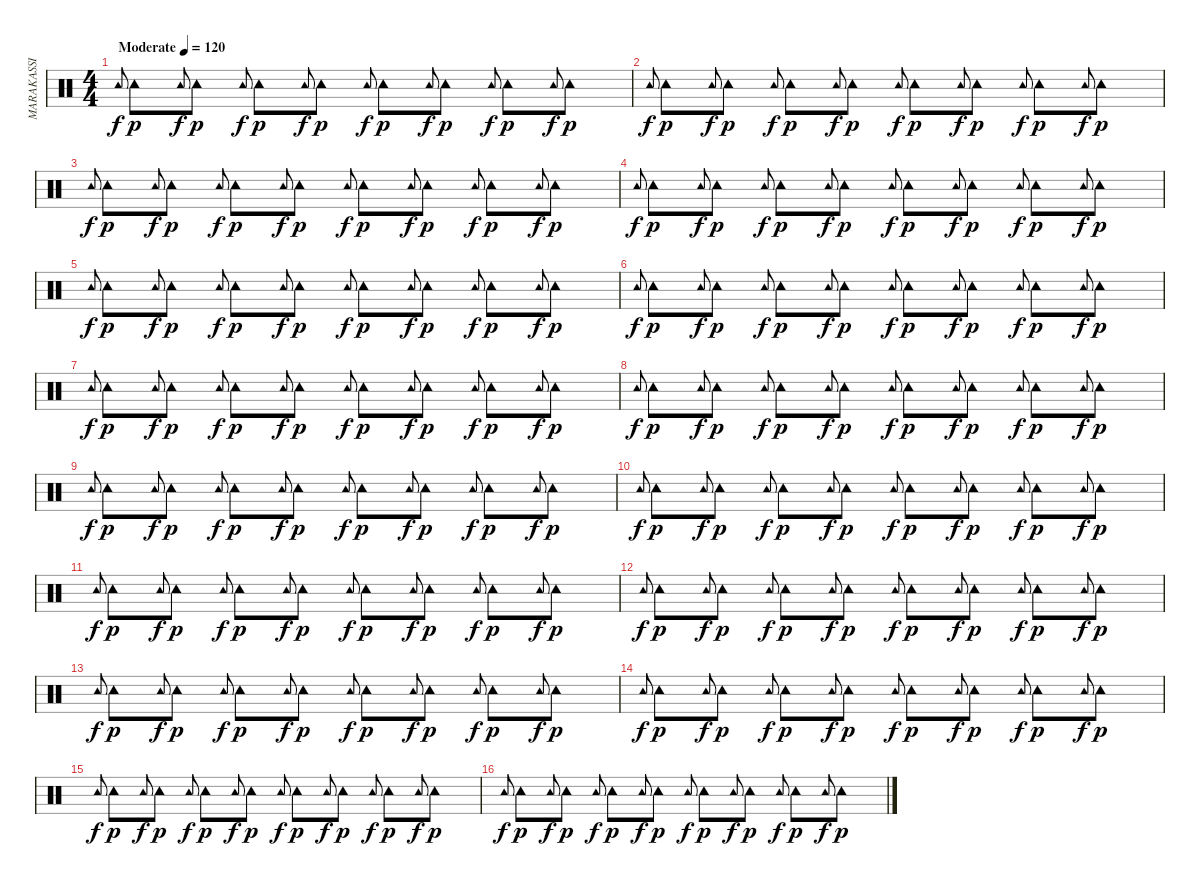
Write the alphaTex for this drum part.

\track ("MARAKASSI" "MARAKASSI") {instrument percussion}
\staff {score}
\articulation defaults
\ts (4 4)
\tempo (120 "Moderate")
\clef neutral
\ks c "Tambourine (hit)".8{gr onbeat dy f} "Tambourine (hit)".8{dy p} "Tambourine (hit)".8{gr onbeat dy f} "Tambourine (hit)".8{dy p} "Tambourine (hit)".8{gr onbeat dy f} "Tambourine (hit)".8{dy p} "Tambourine (hit)".8{gr onbeat dy f} "Tambourine (hit)".8{dy p} "Tambourine (hit)".8{gr onbeat dy f} "Tambourine (hit)".8{dy p} "Tambourine (hit)".8{gr onbeat dy f} "Tambourine (hit)".8{dy p} "Tambourine (hit)".8{gr onbeat dy f} "Tambourine (hit)".8{dy p} "Tambourine (hit)".8{gr onbeat dy f} "Tambourine (hit)".8{dy p}
|
"Tambourine (hit)".8{gr onbeat dy f} "Tambourine (hit)".8{dy p} "Tambourine (hit)".8{gr onbeat dy f} "Tambourine (hit)".8{dy p} "Tambourine (hit)".8{gr onbeat dy f} "Tambourine (hit)".8{dy p} "Tambourine (hit)".8{gr onbeat dy f} "Tambourine (hit)".8{dy p} "Tambourine (hit)".8{gr onbeat dy f} "Tambourine (hit)".8{dy p} "Tambourine (hit)".8{gr onbeat dy f} "Tambourine (hit)".8{dy p} "Tambourine (hit)".8{gr onbeat dy f} "Tambourine (hit)".8{dy p} "Tambourine (hit)".8{gr onbeat dy f} "Tambourine (hit)".8{dy p} |
"Tambourine (hit)".8{gr onbeat dy f} "Tambourine (hit)".8{dy p} "Tambourine (hit)".8{gr onbeat dy f} "Tambourine (hit)".8{dy p} "Tambourine (hit)".8{gr onbeat dy f} "Tambourine (hit)".8{dy p} "Tambourine (hit)".8{gr onbeat dy f} "Tambourine (hit)".8{dy p} "Tambourine (hit)".8{gr onbeat dy f} "Tambourine (hit)".8{dy p} "Tambourine (hit)".8{gr onbeat dy f} "Tambourine (hit)".8{dy p} "Tambourine (hit)".8{gr onbeat dy f} "Tambourine (hit)".8{dy p} "Tambourine (hit)".8{gr onbeat dy f} "Tambourine (hit)".8{dy p} |
"Tambourine (hit)".8{gr onbeat dy f} "Tambourine (hit)".8{dy p} "Tambourine (hit)".8{gr onbeat dy f} "Tambourine (hit)".8{dy p} "Tambourine (hit)".8{gr onbeat dy f} "Tambourine (hit)".8{dy p} "Tambourine (hit)".8{gr onbeat dy f} "Tambourine (hit)".8{dy p} "Tambourine (hit)".8{gr onbeat dy f} "Tambourine (hit)".8{dy p} "Tambourine (hit)".8{gr onbeat dy f} "Tambourine (hit)".8{dy p} "Tambourine (hit)".8{gr onbeat dy f} "Tambourine (hit)".8{dy p} "Tambourine (hit)".8{gr onbeat dy f} "Tambourine (hit)".8{dy p} |
"Tambourine (hit)".8{gr onbeat dy f} "Tambourine (hit)".8{dy p} "Tambourine (hit)".8{gr onbeat dy f} "Tambourine (hit)".8{dy p} "Tambourine (hit)".8{gr onbeat dy f} "Tambourine (hit)".8{dy p} "Tambourine (hit)".8{gr onbeat dy f} "Tambourine (hit)".8{dy p} "Tambourine (hit)".8{gr onbeat dy f} "Tambourine (hit)".8{dy p} "Tambourine (hit)".8{gr onbeat dy f} "Tambourine (hit)".8{dy p} "Tambourine (hit)".8{gr onbeat dy f} "Tambourine (hit)".8{dy p} "Tambourine (hit)".8{gr onbeat dy f} "Tambourine (hit)".8{dy p} |
"Tambourine (hit)".8{gr onbeat dy f} "Tambourine (hit)".8{dy p} "Tambourine (hit)".8{gr onbeat dy f} "Tambourine (hit)".8{dy p} "Tambourine (hit)".8{gr onbeat dy f} "Tambourine (hit)".8{dy p} "Tambourine (hit)".8{gr onbeat dy f} "Tambourine (hit)".8{dy p} "Tambourine (hit)".8{gr onbeat dy f} "Tambourine (hit)".8{dy p} "Tambourine (hit)".8{gr onbeat dy f} "Tambourine (hit)".8{dy p} "Tambourine (hit)".8{gr onbeat dy f} "Tambourine (hit)".8{dy p} "Tambourine (hit)".8{gr onbeat dy f} "Tambourine (hit)".8{dy p} |
"Tambourine (hit)".8{gr onbeat dy f} "Tambourine (hit)".8{dy p} "Tambourine (hit)".8{gr onbeat dy f} "Tambourine (hit)".8{dy p} "Tambourine (hit)".8{gr onbeat dy f} "Tambourine (hit)".8{dy p} "Tambourine (hit)".8{gr onbeat dy f} "Tambourine (hit)".8{dy p} "Tambourine (hit)".8{gr onbeat dy f} "Tambourine (hit)".8{dy p} "Tambourine (hit)".8{gr onbeat dy f} "Tambourine (hit)".8{dy p} "Tambourine (hit)".8{gr onbeat dy f} "Tambourine (hit)".8{dy p} "Tambourine (hit)".8{gr onbeat dy f} "Tambourine (hit)".8{dy p} |
"Tambourine (hit)".8{gr onbeat dy f} "Tambourine (hit)".8{dy p} "Tambourine (hit)".8{gr onbeat dy f} "Tambourine (hit)".8{dy p} "Tambourine (hit)".8{gr onbeat dy f} "Tambourine (hit)".8{dy p} "Tambourine (hit)".8{gr onbeat dy f} "Tambourine (hit)".8{dy p} "Tambourine (hit)".8{gr onbeat dy f} "Tambourine (hit)".8{dy p} "Tambourine (hit)".8{gr onbeat dy f} "Tambourine (hit)".8{dy p} "Tambourine (hit)".8{gr onbeat dy f} "Tambourine (hit)".8{dy p} "Tambourine (hit)".8{gr onbeat dy f} "Tambourine (hit)".8{dy p} |
"Tambourine (hit)".8{gr onbeat dy f} "Tambourine (hit)".8{dy p} "Tambourine (hit)".8{gr onbeat dy f} "Tambourine (hit)".8{dy p} "Tambourine (hit)".8{gr onbeat dy f} "Tambourine (hit)".8{dy p} "Tambourine (hit)".8{gr onbeat dy f} "Tambourine (hit)".8{dy p} "Tambourine (hit)".8{gr onbeat dy f} "Tambourine (hit)".8{dy p} "Tambourine (hit)".8{gr onbeat dy f} "Tambourine (hit)".8{dy p} "Tambourine (hit)".8{gr onbeat dy f} "Tambourine (hit)".8{dy p} "Tambourine (hit)".8{gr onbeat dy f} "Tambourine (hit)".8{dy p} |
"Tambourine (hit)".8{gr onbeat dy f} "Tambourine (hit)".8{dy p} "Tambourine (hit)".8{gr onbeat dy f} "Tambourine (hit)".8{dy p} "Tambourine (hit)".8{gr onbeat dy f} "Tambourine (hit)".8{dy p} "Tambourine (hit)".8{gr onbeat dy f} "Tambourine (hit)".8{dy p} "Tambourine (hit)".8{gr onbeat dy f} "Tambourine (hit)".8{dy p} "Tambourine (hit)".8{gr onbeat dy f} "Tambourine (hit)".8{dy p} "Tambourine (hit)".8{gr onbeat dy f} "Tambourine (hit)".8{dy p} "Tambourine (hit)".8{gr onbeat dy f} "Tambourine (hit)".8{dy p} |
"Tambourine (hit)".8{gr onbeat dy f} "Tambourine (hit)".8{dy p} "Tambourine (hit)".8{gr onbeat dy f} "Tambourine (hit)".8{dy p} "Tambourine (hit)".8{gr onbeat dy f} "Tambourine (hit)".8{dy p} "Tambourine (hit)".8{gr onbeat dy f} "Tambourine (hit)".8{dy p} "Tambourine (hit)".8{gr onbeat dy f} "Tambourine (hit)".8{dy p} "Tambourine (hit)".8{gr onbeat dy f} "Tambourine (hit)".8{dy p} "Tambourine (hit)".8{gr onbeat dy f} "Tambourine (hit)".8{dy p} "Tambourine (hit)".8{gr onbeat dy f} "Tambourine (hit)".8{dy p} |
"Tambourine (hit)".8{gr onbeat dy f} "Tambourine (hit)".8{dy p} "Tambourine (hit)".8{gr onbeat dy f} "Tambourine (hit)".8{dy p} "Tambourine (hit)".8{gr onbeat dy f} "Tambourine (hit)".8{dy p} "Tambourine (hit)".8{gr onbeat dy f} "Tambourine (hit)".8{dy p} "Tambourine (hit)".8{gr onbeat dy f} "Tambourine (hit)".8{dy p} "Tambourine (hit)".8{gr onbeat dy f} "Tambourine (hit)".8{dy p} "Tambourine (hit)".8{gr onbeat dy f} "Tambourine (hit)".8{dy p} "Tambourine (hit)".8{gr onbeat dy f} "Tambourine (hit)".8{dy p} |
"Tambourine (hit)".8{gr onbeat dy f} "Tambourine (hit)".8{dy p} "Tambourine (hit)".8{gr onbeat dy f} "Tambourine (hit)".8{dy p} "Tambourine (hit)".8{gr onbeat dy f} "Tambourine (hit)".8{dy p} "Tambourine (hit)".8{gr onbeat dy f} "Tambourine (hit)".8{dy p} "Tambourine (hit)".8{gr onbeat dy f} "Tambourine (hit)".8{dy p} "Tambourine (hit)".8{gr onbeat dy f} "Tambourine (hit)".8{dy p} "Tambourine (hit)".8{gr onbeat dy f} "Tambourine (hit)".8{dy p} "Tambourine (hit)".8{gr onbeat dy f} "Tambourine (hit)".8{dy p} |
"Tambourine (hit)".8{gr onbeat dy f} "Tambourine (hit)".8{dy p} "Tambourine (hit)".8{gr onbeat dy f} "Tambourine (hit)".8{dy p} "Tambourine (hit)".8{gr onbeat dy f} "Tambourine (hit)".8{dy p} "Tambourine (hit)".8{gr onbeat dy f} "Tambourine (hit)".8{dy p} "Tambourine (hit)".8{gr onbeat dy f} "Tambourine (hit)".8{dy p} "Tambourine (hit)".8{gr onbeat dy f} "Tambourine (hit)".8{dy p} "Tambourine (hit)".8{gr onbeat dy f} "Tambourine (hit)".8{dy p} "Tambourine (hit)".8{gr onbeat dy f} "Tambourine (hit)".8{dy p} |
"Tambourine (hit)".8{gr onbeat dy f} "Tambourine (hit)".8{dy p} "Tambourine (hit)".8{gr onbeat dy f} "Tambourine (hit)".8{dy p} "Tambourine (hit)".8{gr onbeat dy f} "Tambourine (hit)".8{dy p} "Tambourine (hit)".8{gr onbeat dy f} "Tambourine (hit)".8{dy p} "Tambourine (hit)".8{gr onbeat dy f} "Tambourine (hit)".8{dy p} "Tambourine (hit)".8{gr onbeat dy f} "Tambourine (hit)".8{dy p} "Tambourine (hit)".8{gr onbeat dy f} "Tambourine (hit)".8{dy p} "Tambourine (hit)".8{gr onbeat dy f} "Tambourine (hit)".8{dy p} |
"Tambourine (hit)".8{gr onbeat dy f} "Tambourine (hit)".8{dy p} "Tambourine (hit)".8{gr onbeat dy f} "Tambourine (hit)".8{dy p} "Tambourine (hit)".8{gr onbeat dy f} "Tambourine (hit)".8{dy p} "Tambourine (hit)".8{gr onbeat dy f} "Tambourine (hit)".8{dy p} "Tambourine (hit)".8{gr onbeat dy f} "Tambourine (hit)".8{dy p} "Tambourine (hit)".8{gr onbeat dy f} "Tambourine (hit)".8{dy p} "Tambourine (hit)".8{gr onbeat dy f} "Tambourine (hit)".8{dy p} "Tambourine (hit)".8{gr onbeat dy f} "Tambourine (hit)".8{dy p}
